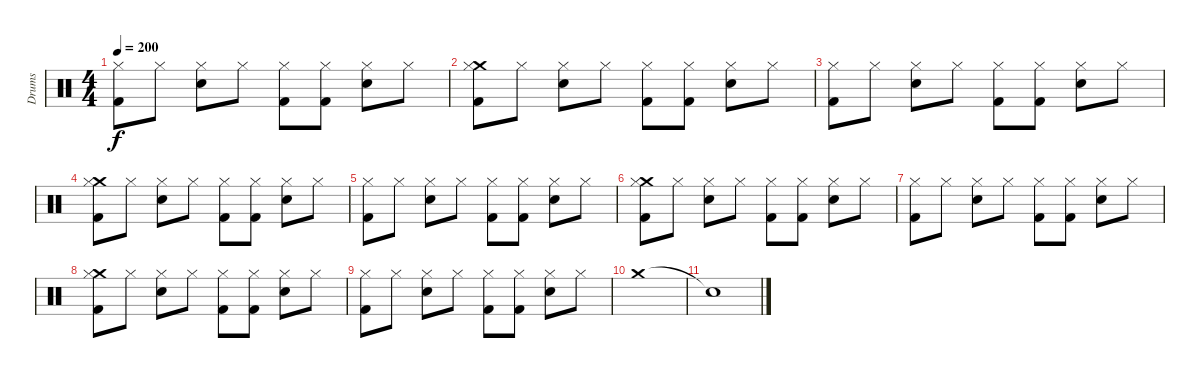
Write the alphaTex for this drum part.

\track ("Drums" "Drums") {instrument percussion}
\staff {score}
\articulation defaults
\ts (4 4)
\tempo 200
\clef neutral
\ks c
("Hi-Hat (closed)" "Kick (hit) 2").8{dy f} "Hi-Hat (closed)".8 ("Hi-Hat (closed)" "Snare (hit) 2").8 "Hi-Hat (closed)".8 ("Hi-Hat (closed)" "Kick (hit) 2").8 ("Hi-Hat (closed)" "Kick (hit) 2").8 ("Hi-Hat (closed)" "Snare (hit) 2").8 "Hi-Hat (closed)".8 |
("Crash medium (hit)" "Hi-Hat (closed)" "Kick (hit) 2").8 "Hi-Hat (closed)".8 ("Hi-Hat (closed)" "Snare (hit) 2").8 "Hi-Hat (closed)".8 ("Hi-Hat (closed)" "Kick (hit) 2").8 ("Hi-Hat (closed)" "Kick (hit) 2").8 ("Hi-Hat (closed)" "Snare (hit) 2").8 "Hi-Hat (closed)".8 |
("Hi-Hat (closed)" "Kick (hit) 2").8 "Hi-Hat (closed)".8 ("Hi-Hat (closed)" "Snare (hit) 2").8 "Hi-Hat (closed)".8 ("Hi-Hat (closed)" "Kick (hit) 2").8 ("Hi-Hat (closed)" "Kick (hit) 2").8 ("Hi-Hat (closed)" "Snare (hit) 2").8 "Hi-Hat (closed)".8 |
("Crash medium (hit)" "Hi-Hat (closed)" "Kick (hit) 2").8 "Hi-Hat (closed)".8 ("Hi-Hat (closed)" "Snare (hit) 2").8 "Hi-Hat (closed)".8 ("Hi-Hat (closed)" "Kick (hit) 2").8 ("Hi-Hat (closed)" "Kick (hit) 2").8 ("Hi-Hat (closed)" "Snare (hit) 2").8 "Hi-Hat (closed)".8 |
("Hi-Hat (closed)" "Kick (hit) 2").8 "Hi-Hat (closed)".8 ("Hi-Hat (closed)" "Snare (hit) 2").8 "Hi-Hat (closed)".8 ("Hi-Hat (closed)" "Kick (hit) 2").8 ("Hi-Hat (closed)" "Kick (hit) 2").8 ("Hi-Hat (closed)" "Snare (hit) 2").8 "Hi-Hat (closed)".8 |
("Crash medium (hit)" "Hi-Hat (closed)" "Kick (hit) 2").8 "Hi-Hat (closed)".8 ("Hi-Hat (closed)" "Snare (hit) 2").8 "Hi-Hat (closed)".8 ("Hi-Hat (closed)" "Kick (hit) 2").8 ("Hi-Hat (closed)" "Kick (hit) 2").8 ("Hi-Hat (closed)" "Snare (hit) 2").8 "Hi-Hat (closed)".8 |
("Hi-Hat (closed)" "Kick (hit) 2").8 "Hi-Hat (closed)".8 ("Hi-Hat (closed)" "Snare (hit) 2").8 "Hi-Hat (closed)".8 ("Hi-Hat (closed)" "Kick (hit) 2").8 ("Hi-Hat (closed)" "Kick (hit) 2").8 ("Hi-Hat (closed)" "Snare (hit) 2").8 "Hi-Hat (closed)".8 |
("Crash medium (hit)" "Hi-Hat (closed)" "Kick (hit) 2").8 "Hi-Hat (closed)".8 ("Hi-Hat (closed)" "Snare (hit) 2").8 "Hi-Hat (closed)".8 ("Hi-Hat (closed)" "Kick (hit) 2").8 ("Hi-Hat (closed)" "Kick (hit) 2").8 ("Hi-Hat (closed)" "Snare (hit) 2").8 "Hi-Hat (closed)".8 |
("Hi-Hat (closed)" "Kick (hit) 2").8 "Hi-Hat (closed)".8 ("Hi-Hat (closed)" "Snare (hit) 2").8 "Hi-Hat (closed)".8 ("Hi-Hat (closed)" "Kick (hit) 2").8 ("Hi-Hat (closed)" "Kick (hit) 2").8 ("Hi-Hat (closed)" "Snare (hit) 2").8 "Hi-Hat (closed)".8 |
"Crash medium (hit)".1 |
"Snare (hit)"{t}.1
